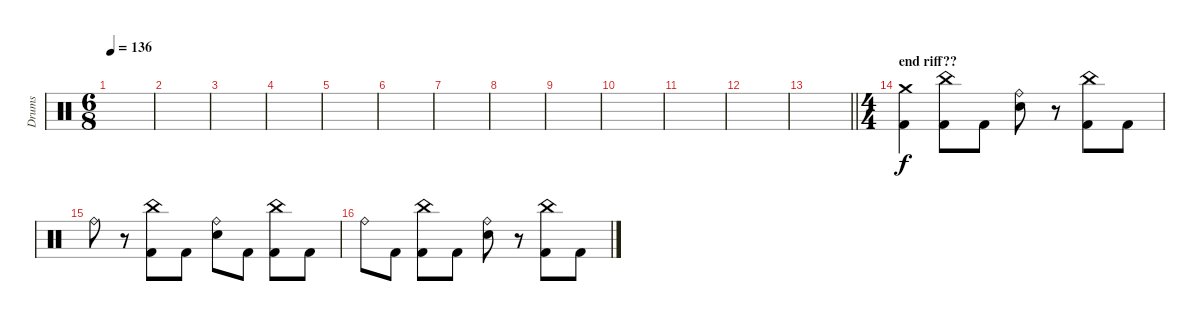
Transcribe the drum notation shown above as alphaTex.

\track ("Drums" "Drums") {instrument percussion}
\staff {score}
\articulation defaults
\ts (6 8)
\tempo 136
\clef neutral
\ks c
|
|
|
|
|
|
|
|
|
|
|
|
\barLineRight lightlight
|
\ts (4 4)
\section ("" "end riff??")
("Crash medium (hit)" "Kick (hit) 2").4 ("China (hit)" "Kick (hit) 2").8 "Kick (hit) 2".8 ("Ride (bell)" "Snare (hit) 2").8 r.8 ("China (hit)" "Kick (hit) 2").8 "Kick (hit) 2".8 |
"Ride (bell)".8 r.8 ("China (hit)" "Kick (hit) 2").8 "Kick (hit) 2".8 ("Ride (bell)" "Snare (hit) 2").8 "Kick (hit) 2".8 ("China (hit)" "Kick (hit) 2").8 "Kick (hit) 2".8 |
"Ride (bell)".8 "Kick (hit) 2".8 ("China (hit)" "Kick (hit) 2").8 "Kick (hit) 2".8 ("Ride (bell)" "Snare (hit) 2").8 r.8 ("China (hit)" "Kick (hit) 2").8 "Kick (hit) 2".8
